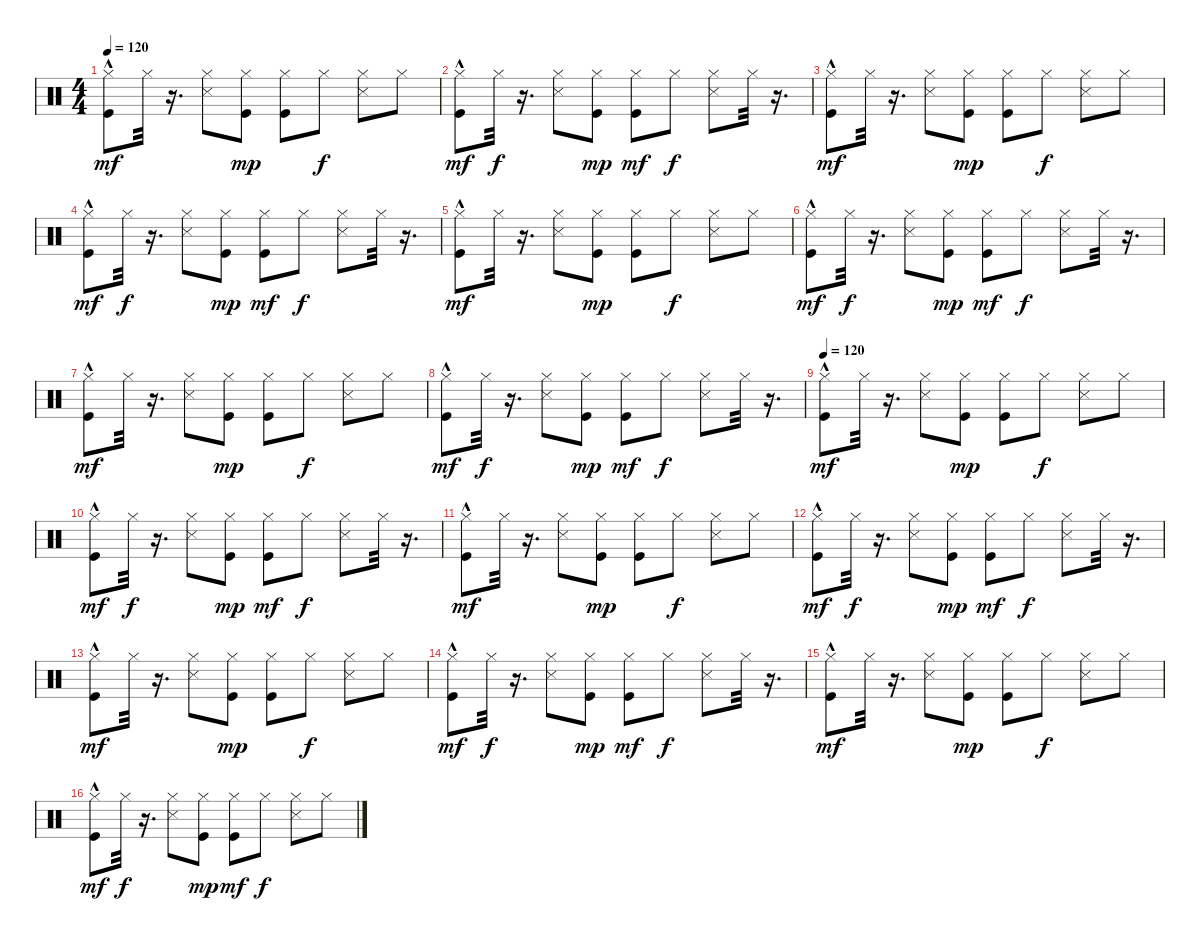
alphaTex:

\track "" {instrument percussion}
\staff {score}
\articulation defaults
\ts (4 4)
\tempo 120
\clef neutral
\ks c
("Kick (hit)"{hac} "Hi-Hat (closed)").8{dy mf} "Hi-Hat (closed)".32 r.16{d} ("Hi-Hat (closed)" "Snare (side stick) 3").8 ("Kick (hit)" "Hi-Hat (closed)").8{dy mp} ("Hi-Hat (closed)" "Kick (hit)").8 "Hi-Hat (closed)".8{dy f} ("Hi-Hat (closed)" "Snare (side stick) 3").8 "Hi-Hat (closed)".8 |
("Kick (hit)"{hac} "Hi-Hat (closed)").8{dy mf} "Hi-Hat (closed)".32{dy f} r.16{d} ("Hi-Hat (closed)" "Snare (side stick) 3").8 ("Hi-Hat (closed)" "Kick (hit)").8{dy mp} ("Kick (hit)" "Hi-Hat (closed)").8{dy mf} "Hi-Hat (closed)".8{dy f} ("Hi-Hat (closed)" "Snare (side stick) 3").8 "Hi-Hat (closed)".32 r.16{d} |
("Kick (hit)"{hac} "Hi-Hat (closed)").8{dy mf} "Hi-Hat (closed)".32 r.16{d} ("Hi-Hat (closed)" "Snare (side stick) 3").8 ("Kick (hit)" "Hi-Hat (closed)").8{dy mp} ("Hi-Hat (closed)" "Kick (hit)").8 "Hi-Hat (closed)".8{dy f} ("Hi-Hat (closed)" "Snare (side stick) 3").8 "Hi-Hat (closed)".8 |
("Kick (hit)"{hac} "Hi-Hat (closed)").8{dy mf} "Hi-Hat (closed)".32{dy f} r.16{d} ("Hi-Hat (closed)" "Snare (side stick) 3").8 ("Hi-Hat (closed)" "Kick (hit)").8{dy mp} ("Kick (hit)" "Hi-Hat (closed)").8{dy mf} "Hi-Hat (closed)".8{dy f} ("Hi-Hat (closed)" "Snare (side stick) 3").8 "Hi-Hat (closed)".32 r.16{d} |
("Kick (hit)"{hac} "Hi-Hat (closed)").8{dy mf} "Hi-Hat (closed)".32 r.16{d} ("Hi-Hat (closed)" "Snare (side stick) 3").8 ("Kick (hit)" "Hi-Hat (closed)").8{dy mp} ("Hi-Hat (closed)" "Kick (hit)").8 "Hi-Hat (closed)".8{dy f} ("Hi-Hat (closed)" "Snare (side stick) 3").8 "Hi-Hat (closed)".8 |
("Kick (hit)"{hac} "Hi-Hat (closed)").8{dy mf} "Hi-Hat (closed)".32{dy f} r.16{d} ("Hi-Hat (closed)" "Snare (side stick) 3").8 ("Hi-Hat (closed)" "Kick (hit)").8{dy mp} ("Kick (hit)" "Hi-Hat (closed)").8{dy mf} "Hi-Hat (closed)".8{dy f} ("Hi-Hat (closed)" "Snare (side stick) 3").8 "Hi-Hat (closed)".32 r.16{d} |
("Kick (hit)"{hac} "Hi-Hat (closed)").8{dy mf} "Hi-Hat (closed)".32 r.16{d} ("Hi-Hat (closed)" "Snare (side stick) 3").8 ("Kick (hit)" "Hi-Hat (closed)").8{dy mp} ("Hi-Hat (closed)" "Kick (hit)").8 "Hi-Hat (closed)".8{dy f} ("Hi-Hat (closed)" "Snare (side stick) 3").8 "Hi-Hat (closed)".8 |
("Kick (hit)"{hac} "Hi-Hat (closed)").8{dy mf} "Hi-Hat (closed)".32{dy f} r.16{d} ("Hi-Hat (closed)" "Snare (side stick) 3").8 ("Hi-Hat (closed)" "Kick (hit)").8{dy mp} ("Kick (hit)" "Hi-Hat (closed)").8{dy mf} "Hi-Hat (closed)".8{dy f} ("Hi-Hat (closed)" "Snare (side stick) 3").8 "Hi-Hat (closed)".32 r.16{d} |
\tempo 120
("Kick (hit)"{hac} "Hi-Hat (closed)").8{dy mf} "Hi-Hat (closed)".32 r.16{d} ("Hi-Hat (closed)" "Snare (side stick) 3").8 ("Kick (hit)" "Hi-Hat (closed)").8{dy mp} ("Hi-Hat (closed)" "Kick (hit)").8 "Hi-Hat (closed)".8{dy f} ("Hi-Hat (closed)" "Snare (side stick) 3").8 "Hi-Hat (closed)".8 |
("Kick (hit)"{hac} "Hi-Hat (closed)").8{dy mf} "Hi-Hat (closed)".32{dy f} r.16{d} ("Hi-Hat (closed)" "Snare (side stick) 3").8 ("Hi-Hat (closed)" "Kick (hit)").8{dy mp} ("Kick (hit)" "Hi-Hat (closed)").8{dy mf} "Hi-Hat (closed)".8{dy f} ("Hi-Hat (closed)" "Snare (side stick) 3").8 "Hi-Hat (closed)".32 r.16{d} |
("Kick (hit)"{hac} "Hi-Hat (closed)").8{dy mf} "Hi-Hat (closed)".32 r.16{d} ("Hi-Hat (closed)" "Snare (side stick) 3").8 ("Kick (hit)" "Hi-Hat (closed)").8{dy mp} ("Hi-Hat (closed)" "Kick (hit)").8 "Hi-Hat (closed)".8{dy f} ("Hi-Hat (closed)" "Snare (side stick) 3").8 "Hi-Hat (closed)".8 |
("Kick (hit)"{hac} "Hi-Hat (closed)").8{dy mf} "Hi-Hat (closed)".32{dy f} r.16{d} ("Hi-Hat (closed)" "Snare (side stick) 3").8 ("Hi-Hat (closed)" "Kick (hit)").8{dy mp} ("Kick (hit)" "Hi-Hat (closed)").8{dy mf} "Hi-Hat (closed)".8{dy f} ("Hi-Hat (closed)" "Snare (side stick) 3").8 "Hi-Hat (closed)".32 r.16{d} |
("Kick (hit)"{hac} "Hi-Hat (closed)").8{dy mf} "Hi-Hat (closed)".32 r.16{d} ("Hi-Hat (closed)" "Snare (side stick) 3").8 ("Kick (hit)" "Hi-Hat (closed)").8{dy mp} ("Hi-Hat (closed)" "Kick (hit)").8 "Hi-Hat (closed)".8{dy f} ("Hi-Hat (closed)" "Snare (side stick) 3").8 "Hi-Hat (closed)".8 |
("Kick (hit)"{hac} "Hi-Hat (closed)").8{dy mf} "Hi-Hat (closed)".32{dy f} r.16{d} ("Hi-Hat (closed)" "Snare (side stick) 3").8 ("Hi-Hat (closed)" "Kick (hit)").8{dy mp} ("Kick (hit)" "Hi-Hat (closed)").8{dy mf} "Hi-Hat (closed)".8{dy f} ("Hi-Hat (closed)" "Snare (side stick) 3").8 "Hi-Hat (closed)".32 r.16{d} |
("Kick (hit)"{hac} "Hi-Hat (closed)").8{dy mf} "Hi-Hat (closed)".32 r.16{d} ("Hi-Hat (closed)" "Snare (side stick) 3").8 ("Kick (hit)" "Hi-Hat (closed)").8{dy mp} ("Hi-Hat (closed)" "Kick (hit)").8 "Hi-Hat (closed)".8{dy f} ("Hi-Hat (closed)" "Snare (side stick) 3").8 "Hi-Hat (closed)".8 |
("Kick (hit)"{hac} "Hi-Hat (closed)").8{dy mf} "Hi-Hat (closed)".32{dy f} r.16{d} ("Hi-Hat (closed)" "Snare (side stick) 3").8 ("Hi-Hat (closed)" "Kick (hit)").8{dy mp} ("Kick (hit)" "Hi-Hat (closed)").8{dy mf} "Hi-Hat (closed)".8{dy f} ("Hi-Hat (closed)" "Snare (side stick) 3").8 "Hi-Hat (closed)".8
